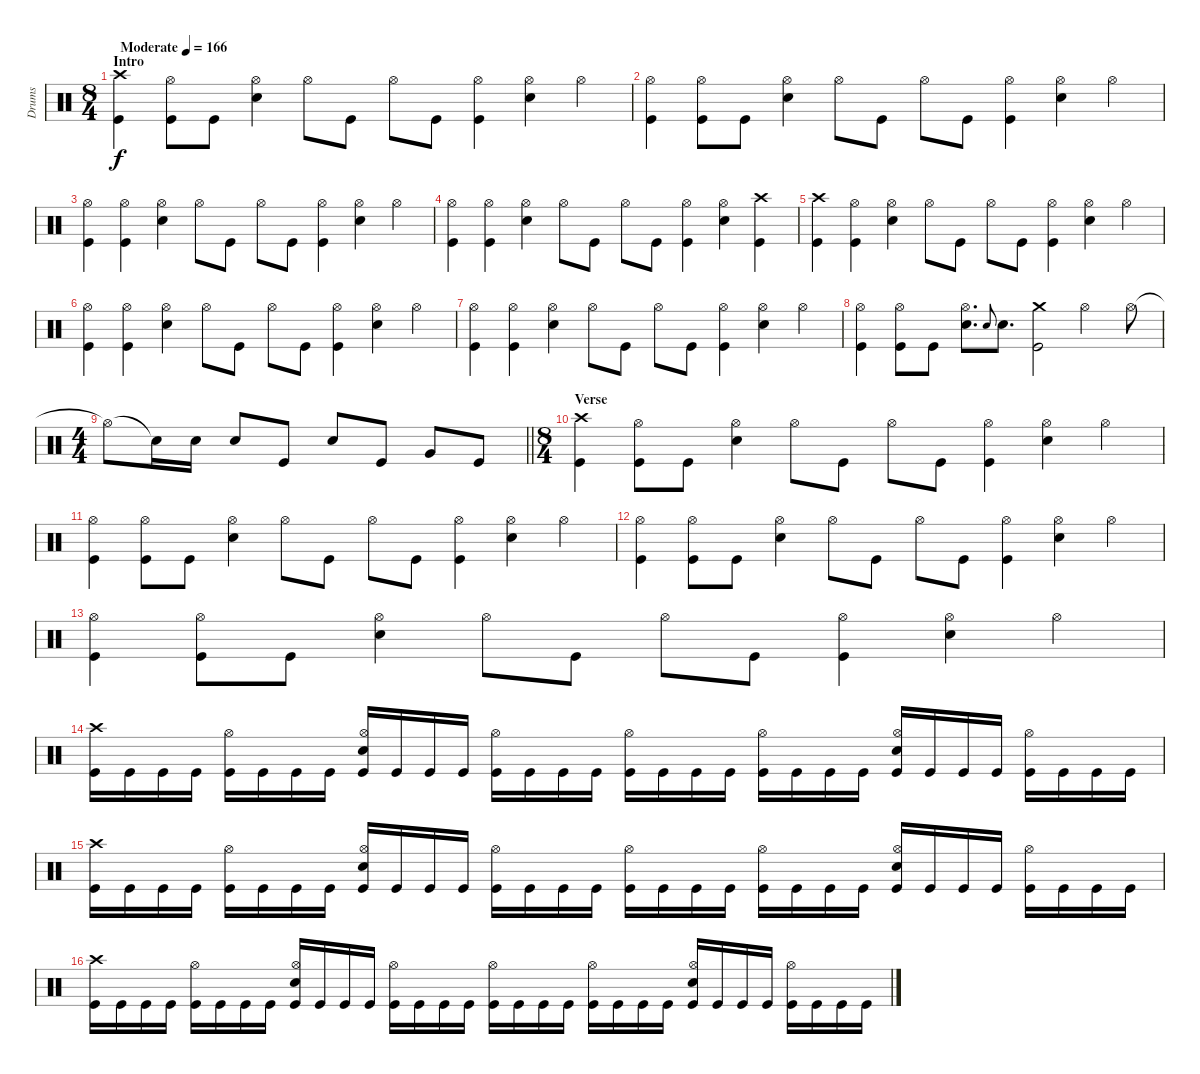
\track ("Drums" "Drums") {instrument percussion}
\staff {score}
\articulation defaults
\ts (8 4)
\section ("" "Intro")
\tempo (166 "Moderate")
\clef neutral
\ks c
("Crash high (hit)" "Kick (hit)").4{dy f} ("Hi-Hat (open)" "Kick (hit)").8 "Kick (hit)".8 ("Hi-Hat (open)" "Snare (hit) 2").4 "Hi-Hat (open)".8 "Kick (hit)".8 "Hi-Hat (open)".8 "Kick (hit)".8 ("Hi-Hat (open)" "Kick (hit)").4 ("Hi-Hat (open)" "Snare (hit) 2").4 "Hi-Hat (open)".4 |
("Hi-Hat (open)" "Kick (hit)").4 ("Hi-Hat (open)" "Kick (hit)").8 "Kick (hit)".8 ("Hi-Hat (open)" "Snare (hit) 2").4 "Hi-Hat (open)".8 "Kick (hit)".8 "Hi-Hat (open)".8 "Kick (hit)".8 ("Hi-Hat (open)" "Kick (hit)").4 ("Hi-Hat (open)" "Snare (hit) 2").4 "Hi-Hat (open)".4 |
("Hi-Hat (open)" "Kick (hit)").4 ("Hi-Hat (open)" "Kick (hit)").4 ("Hi-Hat (open)" "Snare (hit) 2").4 "Hi-Hat (open)".8 "Kick (hit)".8 "Hi-Hat (open)".8 "Kick (hit)".8 ("Hi-Hat (open)" "Kick (hit)").4 ("Hi-Hat (open)" "Snare (hit) 2").4 "Hi-Hat (open)".4 |
("Hi-Hat (open)" "Kick (hit)").4 ("Hi-Hat (open)" "Kick (hit)").4 ("Hi-Hat (open)" "Snare (hit) 2").4 "Hi-Hat (open)".8 "Kick (hit)".8 "Hi-Hat (open)".8 "Kick (hit)".8 ("Hi-Hat (open)" "Kick (hit)").4 ("Hi-Hat (open)" "Snare (hit) 2").4 ("Crash high (hit)" "Kick (hit)").4 |
("Crash high (hit)" "Kick (hit)").4 ("Hi-Hat (open)" "Kick (hit)").4 ("Hi-Hat (open)" "Snare (hit) 2").4 "Hi-Hat (open)".8 "Kick (hit)".8 "Hi-Hat (open)".8 "Kick (hit)".8 ("Hi-Hat (open)" "Kick (hit)").4 ("Hi-Hat (open)" "Snare (hit) 2").4 "Hi-Hat (open)".4 |
("Hi-Hat (open)" "Kick (hit)").4 ("Hi-Hat (open)" "Kick (hit)").4 ("Hi-Hat (open)" "Snare (hit) 2").4 "Hi-Hat (open)".8 "Kick (hit)".8 "Hi-Hat (open)".8 "Kick (hit)".8 ("Hi-Hat (open)" "Kick (hit)").4 ("Hi-Hat (open)" "Snare (hit) 2").4 "Hi-Hat (open)".4 |
("Hi-Hat (open)" "Kick (hit)").4 ("Hi-Hat (open)" "Kick (hit)").4 ("Hi-Hat (open)" "Snare (hit) 2").4 "Hi-Hat (open)".8 "Kick (hit)".8 "Hi-Hat (open)".8 "Kick (hit)".8 ("Hi-Hat (open)" "Kick (hit)").4 ("Hi-Hat (open)" "Snare (hit) 2").4 "Hi-Hat (open)".4 |
("Hi-Hat (open)" "Kick (hit)").4 ("Hi-Hat (open)" "Kick (hit)").8 "Kick (hit)".8 ("Hi-Hat (open)" "Snare (hit) 2").8{d} "Snare (hit) 2".8{gr onbeat} "Snare (hit) 2".8{d} ("Crash medium (hit)" "Kick (hit)").2 "Hi-Hat (open)".2 "Hi-Hat (open)".8 |
\ts (4 4)
\barLineRight lightlight "Hi-Hat (open)"{t}.8 "Snare (hit)"{t}.16 "Snare (hit) 2".16 "Snare (hit) 2".8 "Kick (hit)".8 "Snare (hit) 2".8 "Kick (hit)".8 "Very Low Tom (hit)".8 "Kick (hit)".8
|
\ts (8 4)
\section ("" "Verse")
("Crash high (hit)" "Kick (hit)").4 ("Hi-Hat (open)" "Kick (hit)").8 "Kick (hit)".8 ("Hi-Hat (open)" "Snare (hit) 2").4 "Hi-Hat (open)".8 "Kick (hit)".8 "Hi-Hat (open)".8 "Kick (hit)".8 ("Hi-Hat (open)" "Kick (hit)").4 ("Hi-Hat (open)" "Snare (hit) 2").4 "Hi-Hat (open)".4 |
("Hi-Hat (open)" "Kick (hit)").4 ("Hi-Hat (open)" "Kick (hit)").8 "Kick (hit)".8 ("Hi-Hat (open)" "Snare (hit) 2").4 "Hi-Hat (open)".8 "Kick (hit)".8 "Hi-Hat (open)".8 "Kick (hit)".8 ("Hi-Hat (open)" "Kick (hit)").4 ("Hi-Hat (open)" "Snare (hit) 2").4 "Hi-Hat (open)".4 |
("Hi-Hat (open)" "Kick (hit)").4 ("Hi-Hat (open)" "Kick (hit)").8 "Kick (hit)".8 ("Hi-Hat (open)" "Snare (hit) 2").4 "Hi-Hat (open)".8 "Kick (hit)".8 "Hi-Hat (open)".8 "Kick (hit)".8 ("Hi-Hat (open)" "Kick (hit)").4 ("Hi-Hat (open)" "Snare (hit) 2").4 "Hi-Hat (open)".4 |
("Hi-Hat (open)" "Kick (hit)").4 ("Hi-Hat (open)" "Kick (hit)").8 "Kick (hit)".8 ("Hi-Hat (open)" "Snare (hit) 2").4 "Hi-Hat (open)".8 "Kick (hit)".8 "Hi-Hat (open)".8 "Kick (hit)".8 ("Hi-Hat (open)" "Kick (hit)").4 ("Hi-Hat (open)" "Snare (hit) 2").4 "Hi-Hat (open)".4 |
("Crash high (hit)" "Kick (hit)").16 "Kick (hit)".16 "Kick (hit)".16 "Kick (hit)".16 ("Hi-Hat (open)" "Kick (hit)").16 "Kick (hit)".16 "Kick (hit)".16 "Kick (hit)".16 ("Hi-Hat (open)" "Snare (hit) 2" "Kick (hit)").16 "Kick (hit)".16 "Kick (hit)".16 "Kick (hit)".16 ("Hi-Hat (open)" "Kick (hit)").16 "Kick (hit)".16 "Kick (hit)".16 "Kick (hit)".16 ("Hi-Hat (open)" "Kick (hit)").16 "Kick (hit)".16 "Kick (hit)".16 "Kick (hit)".16 ("Hi-Hat (open)" "Kick (hit)").16 "Kick (hit)".16 "Kick (hit)".16 "Kick (hit)".16 ("Hi-Hat (open)" "Snare (hit) 2" "Kick (hit)").16 "Kick (hit)".16 "Kick (hit)".16 "Kick (hit)".16 ("Hi-Hat (open)" "Kick (hit)").16 "Kick (hit)".16 "Kick (hit)".16 "Kick (hit)".16 |
("Crash high (hit)" "Kick (hit)").16 "Kick (hit)".16 "Kick (hit)".16 "Kick (hit)".16 ("Hi-Hat (open)" "Kick (hit)").16 "Kick (hit)".16 "Kick (hit)".16 "Kick (hit)".16 ("Hi-Hat (open)" "Snare (hit) 2" "Kick (hit)").16 "Kick (hit)".16 "Kick (hit)".16 "Kick (hit)".16 ("Hi-Hat (open)" "Kick (hit)").16 "Kick (hit)".16 "Kick (hit)".16 "Kick (hit)".16 ("Hi-Hat (open)" "Kick (hit)").16 "Kick (hit)".16 "Kick (hit)".16 "Kick (hit)".16 ("Hi-Hat (open)" "Kick (hit)").16 "Kick (hit)".16 "Kick (hit)".16 "Kick (hit)".16 ("Hi-Hat (open)" "Snare (hit) 2" "Kick (hit)").16 "Kick (hit)".16 "Kick (hit)".16 "Kick (hit)".16 ("Hi-Hat (open)" "Kick (hit)").16 "Kick (hit)".16 "Kick (hit)".16 "Kick (hit)".16 |
("Crash high (hit)" "Kick (hit)").16 "Kick (hit)".16 "Kick (hit)".16 "Kick (hit)".16 ("Hi-Hat (open)" "Kick (hit)").16 "Kick (hit)".16 "Kick (hit)".16 "Kick (hit)".16 ("Hi-Hat (open)" "Snare (hit) 2" "Kick (hit)").16 "Kick (hit)".16 "Kick (hit)".16 "Kick (hit)".16 ("Hi-Hat (open)" "Kick (hit)").16 "Kick (hit)".16 "Kick (hit)".16 "Kick (hit)".16 ("Hi-Hat (open)" "Kick (hit)").16 "Kick (hit)".16 "Kick (hit)".16 "Kick (hit)".16 ("Hi-Hat (open)" "Kick (hit)").16 "Kick (hit)".16 "Kick (hit)".16 "Kick (hit)".16 ("Hi-Hat (open)" "Snare (hit) 2" "Kick (hit)").16 "Kick (hit)".16 "Kick (hit)".16 "Kick (hit)".16 ("Hi-Hat (open)" "Kick (hit)").16 "Kick (hit)".16 "Kick (hit)".16 "Kick (hit)".16
